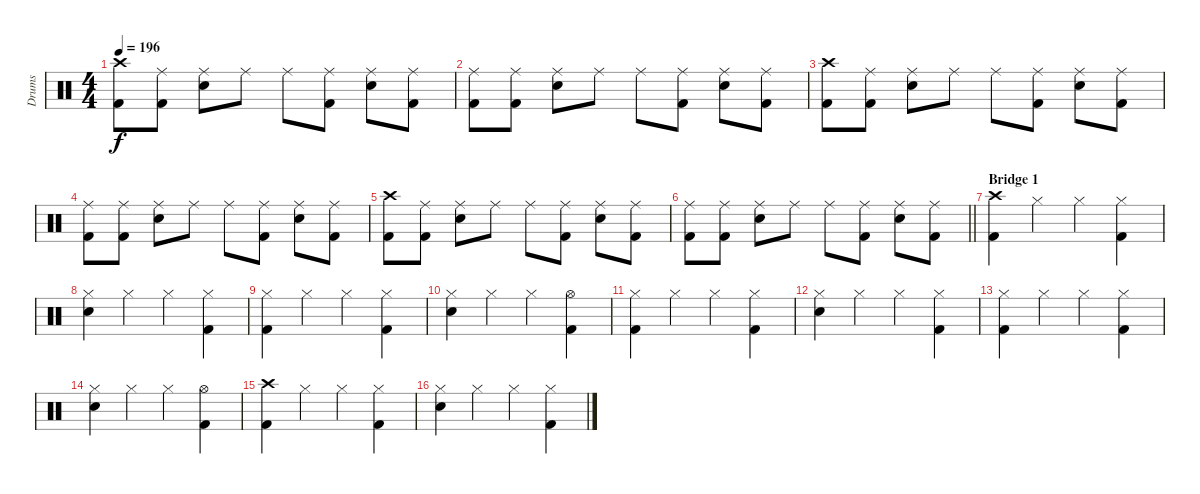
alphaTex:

\track ("Drums" "Drums") {instrument percussion}
\staff {score}
\articulation defaults
\ts (4 4)
\tempo 196
\clef neutral
\ks c
("Crash high (hit)" "Kick (hit) 2").8{dy f} ("Ride (middle)" "Kick (hit) 2").8 ("Ride (middle)" "Electric Snare (hit)").8 "Ride (middle)".8 "Ride (middle)".8 ("Ride (middle)" "Kick (hit) 2").8 ("Ride (middle)" "Electric Snare (hit)").8 ("Ride (middle)" "Kick (hit) 2").8 |
("Ride (middle)" "Kick (hit) 2").8 ("Ride (middle)" "Kick (hit) 2").8 ("Ride (middle)" "Electric Snare (hit)").8 "Ride (middle)".8 "Ride (middle)".8 ("Ride (middle)" "Kick (hit) 2").8 ("Ride (middle)" "Electric Snare (hit)").8 ("Ride (middle)" "Kick (hit) 2").8 |
("Crash high (hit)" "Kick (hit) 2").8 ("Ride (middle)" "Kick (hit) 2").8 ("Ride (middle)" "Electric Snare (hit)").8 "Ride (middle)".8 "Ride (middle)".8 ("Ride (middle)" "Kick (hit) 2").8 ("Ride (middle)" "Electric Snare (hit)").8 ("Ride (middle)" "Kick (hit) 2").8 |
("Ride (middle)" "Kick (hit) 2").8 ("Ride (middle)" "Kick (hit) 2").8 ("Ride (middle)" "Electric Snare (hit)").8 "Ride (middle)".8 "Ride (middle)".8 ("Ride (middle)" "Kick (hit) 2").8 ("Ride (middle)" "Electric Snare (hit)").8 ("Ride (middle)" "Kick (hit) 2").8 |
("Crash high (hit)" "Kick (hit) 2").8 ("Ride (middle)" "Kick (hit) 2").8 ("Ride (middle)" "Electric Snare (hit)").8 "Ride (middle)".8 "Ride (middle)".8 ("Ride (middle)" "Kick (hit) 2").8 ("Ride (middle)" "Electric Snare (hit)").8 ("Ride (middle)" "Kick (hit) 2").8 |
\barLineRight lightlight
("Ride (middle)" "Kick (hit) 2").8 ("Ride (middle)" "Kick (hit) 2").8 ("Ride (middle)" "Electric Snare (hit)").8 "Ride (middle)".8 "Ride (middle)".8 ("Ride (middle)" "Kick (hit) 2").8 ("Ride (middle)" "Electric Snare (hit)").8 ("Ride (middle)" "Kick (hit) 2").8 |
\section ("" "Bridge 1")
("Crash high (hit)" "Kick (hit) 2").4 "Hi-Hat (closed)".4 "Hi-Hat (closed)".4 ("Hi-Hat (closed)" "Kick (hit) 2").4 |
("Hi-Hat (closed)" "Electric Snare (hit)").4 "Hi-Hat (closed)".4 "Hi-Hat (closed)".4 ("Hi-Hat (closed)" "Kick (hit) 2").4 |
("Hi-Hat (closed)" "Kick (hit) 2").4 "Hi-Hat (closed)".4 "Hi-Hat (closed)".4 ("Hi-Hat (closed)" "Kick (hit) 2").4 |
("Hi-Hat (closed)" "Electric Snare (hit)").4 "Hi-Hat (closed)".4 "Hi-Hat (closed)".4 ("Hi-Hat (open)" "Kick (hit) 2").4 |
("Hi-Hat (closed)" "Kick (hit) 2").4 "Hi-Hat (closed)".4 "Hi-Hat (closed)".4 ("Hi-Hat (closed)" "Kick (hit) 2").4 |
("Hi-Hat (closed)" "Electric Snare (hit)").4 "Hi-Hat (closed)".4 "Hi-Hat (closed)".4 ("Hi-Hat (closed)" "Kick (hit) 2").4 |
("Hi-Hat (closed)" "Kick (hit) 2").4 "Hi-Hat (closed)".4 "Hi-Hat (closed)".4 ("Hi-Hat (closed)" "Kick (hit) 2").4 |
("Hi-Hat (closed)" "Electric Snare (hit)").4 "Hi-Hat (closed)".4 "Hi-Hat (closed)".4 ("Hi-Hat (open)" "Kick (hit) 2").4 |
("Crash high (hit)" "Kick (hit) 2").4 "Hi-Hat (closed)".4 "Hi-Hat (closed)".4 ("Hi-Hat (closed)" "Kick (hit) 2").4 |
("Hi-Hat (closed)" "Electric Snare (hit)").4 "Hi-Hat (closed)".4 "Hi-Hat (closed)".4 ("Hi-Hat (closed)" "Kick (hit) 2").4
